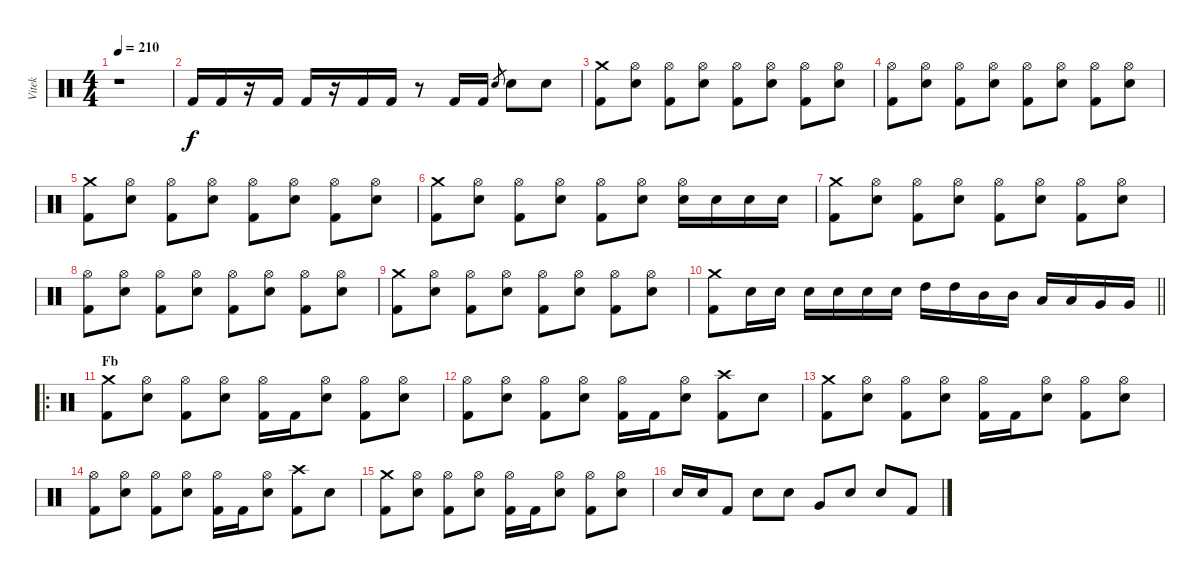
\track ("Vitek" "Vitek") {instrument percussion}
\staff {score}
\articulation defaults
\ts (4 4)
\tempo 210
\clef neutral
\ks c
r.1{dy f} |
"Kick (hit) 2".16 "Kick (hit) 2".16 r.16 "Kick (hit) 2".16 "Kick (hit) 2".16 r.16 "Kick (hit) 2".16 "Kick (hit) 2".16 r.8 "Kick (hit) 2".16 "Kick (hit) 2".16 "Electric Snare (hit)".8{gr} "Electric Snare (hit)".8 "Electric Snare (hit)".8 |
("Crash medium (hit)" "Kick (hit) 2").8 ("Hi-Hat (open)" "Electric Snare (hit)").8 ("Hi-Hat (open)" "Kick (hit) 2").8 ("Hi-Hat (open)" "Electric Snare (hit)").8 ("Hi-Hat (open)" "Kick (hit) 2").8 ("Hi-Hat (open)" "Electric Snare (hit)").8 ("Hi-Hat (open)" "Kick (hit) 2").8 ("Hi-Hat (open)" "Electric Snare (hit)").8 |
("Hi-Hat (open)" "Kick (hit) 2").8 ("Hi-Hat (open)" "Electric Snare (hit)").8 ("Hi-Hat (open)" "Kick (hit) 2").8 ("Hi-Hat (open)" "Electric Snare (hit)").8 ("Hi-Hat (open)" "Kick (hit) 2").8 ("Hi-Hat (open)" "Electric Snare (hit)").8 ("Hi-Hat (open)" "Kick (hit) 2").8 ("Hi-Hat (open)" "Electric Snare (hit)").8 |
("Crash medium (hit)" "Kick (hit) 2").8 ("Hi-Hat (open)" "Electric Snare (hit)").8 ("Hi-Hat (open)" "Kick (hit) 2").8 ("Hi-Hat (open)" "Electric Snare (hit)").8 ("Hi-Hat (open)" "Kick (hit) 2").8 ("Hi-Hat (open)" "Electric Snare (hit)").8 ("Hi-Hat (open)" "Kick (hit) 2").8 ("Hi-Hat (open)" "Electric Snare (hit)").8 |
("Crash medium (hit)" "Kick (hit) 2").8 ("Hi-Hat (open)" "Electric Snare (hit)").8 ("Hi-Hat (open)" "Kick (hit) 2").8 ("Hi-Hat (open)" "Electric Snare (hit)").8 ("Hi-Hat (open)" "Kick (hit) 2").8 ("Hi-Hat (open)" "Electric Snare (hit)").8 ("Hi-Hat (open)" "Electric Snare (hit)").16 "Electric Snare (hit)".16 "Electric Snare (hit)".16 "Electric Snare (hit)".16 |
("Crash medium (hit)" "Kick (hit) 2").8 ("Hi-Hat (open)" "Electric Snare (hit)").8 ("Hi-Hat (open)" "Kick (hit) 2").8 ("Hi-Hat (open)" "Electric Snare (hit)").8 ("Hi-Hat (open)" "Kick (hit) 2").8 ("Hi-Hat (open)" "Electric Snare (hit)").8 ("Hi-Hat (open)" "Kick (hit) 2").8 ("Hi-Hat (open)" "Electric Snare (hit)").8 |
("Hi-Hat (open)" "Kick (hit) 2").8 ("Hi-Hat (open)" "Electric Snare (hit)").8 ("Hi-Hat (open)" "Kick (hit) 2").8 ("Hi-Hat (open)" "Electric Snare (hit)").8 ("Hi-Hat (open)" "Kick (hit) 2").8 ("Hi-Hat (open)" "Electric Snare (hit)").8 ("Hi-Hat (open)" "Kick (hit) 2").8 ("Hi-Hat (open)" "Electric Snare (hit)").8 |
("Crash medium (hit)" "Kick (hit) 2").8 ("Hi-Hat (open)" "Electric Snare (hit)").8 ("Hi-Hat (open)" "Kick (hit) 2").8 ("Hi-Hat (open)" "Electric Snare (hit)").8 ("Hi-Hat (open)" "Kick (hit) 2").8 ("Hi-Hat (open)" "Electric Snare (hit)").8 ("Hi-Hat (open)" "Kick (hit) 2").8 ("Hi-Hat (open)" "Electric Snare (hit)").8 |
\barLineRight lightlight
("Crash medium (hit)" "Kick (hit) 2").8 "Electric Snare (hit)".16 "Electric Snare (hit)".16 "Electric Snare (hit)".16 "Electric Snare (hit)".16 "Electric Snare (hit)".16 "Electric Snare (hit)".16 "High Tom (hit)".16 "High Tom (hit)".16 "Mid Tom (hit)".16 "Mid Tom (hit)".16 "Low Tom (hit)".16 "Low Tom (hit)".16 "Very Low Tom (hit)".16 "Very Low Tom (hit)".16 |
\ro
\section ("" "Fb")
("Crash medium (hit)" "Kick (hit) 2").8 ("Hi-Hat (open)" "Electric Snare (hit)").8 ("Hi-Hat (open)" "Kick (hit) 2").8 ("Hi-Hat (open)" "Electric Snare (hit)").8 ("Hi-Hat (open)" "Kick (hit) 2").16 "Kick (hit) 2".16 ("Hi-Hat (open)" "Electric Snare (hit)").8 ("Hi-Hat (open)" "Kick (hit) 2").8 ("Hi-Hat (open)" "Electric Snare (hit)").8 |
("Hi-Hat (open)" "Kick (hit) 2").8 ("Hi-Hat (open)" "Electric Snare (hit)").8 ("Hi-Hat (open)" "Kick (hit) 2").8 ("Hi-Hat (open)" "Electric Snare (hit)").8 ("Hi-Hat (open)" "Kick (hit) 2").16 "Kick (hit) 2".16 ("Hi-Hat (open)" "Electric Snare (hit)").8 ("Crash high (hit)" "Kick (hit) 2").8 "Electric Snare (hit)".8 |
("Crash medium (hit)" "Kick (hit) 2").8 ("Hi-Hat (open)" "Electric Snare (hit)").8 ("Hi-Hat (open)" "Kick (hit) 2").8 ("Hi-Hat (open)" "Electric Snare (hit)").8 ("Hi-Hat (open)" "Kick (hit) 2").16 "Kick (hit) 2".16 ("Hi-Hat (open)" "Electric Snare (hit)").8 ("Hi-Hat (open)" "Kick (hit) 2").8 ("Hi-Hat (open)" "Electric Snare (hit)").8 |
("Hi-Hat (open)" "Kick (hit) 2").8 ("Hi-Hat (open)" "Electric Snare (hit)").8 ("Hi-Hat (open)" "Kick (hit) 2").8 ("Hi-Hat (open)" "Electric Snare (hit)").8 ("Hi-Hat (open)" "Kick (hit) 2").16 "Kick (hit) 2".16 ("Hi-Hat (open)" "Electric Snare (hit)").8 ("Crash high (hit)" "Kick (hit) 2").8 "Electric Snare (hit)".8 |
("Crash medium (hit)" "Kick (hit) 2").8 ("Hi-Hat (open)" "Electric Snare (hit)").8 ("Hi-Hat (open)" "Kick (hit) 2").8 ("Hi-Hat (open)" "Electric Snare (hit)").8 ("Hi-Hat (open)" "Kick (hit) 2").16 "Kick (hit) 2".16 ("Hi-Hat (open)" "Electric Snare (hit)").8 ("Hi-Hat (open)" "Kick (hit) 2").8 ("Hi-Hat (open)" "Electric Snare (hit)").8 |
"Electric Snare (hit)".16 "Electric Snare (hit)".16 "Kick (hit) 2".8 "Electric Snare (hit)".8 "Electric Snare (hit)".8 "Very Low Tom (hit)".8 "Electric Snare (hit)".8 "Electric Snare (hit)".8 "Kick (hit) 2".8
